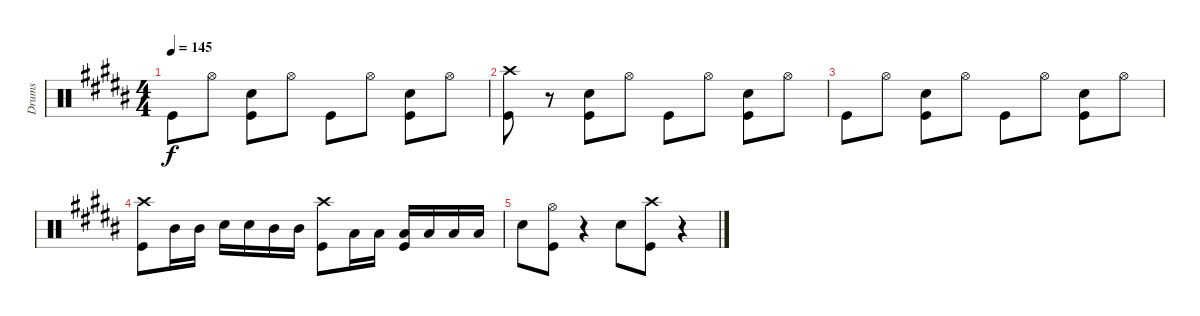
\track ("Drums" "Drums") {instrument percussion}
\staff {score}
\articulation defaults
\ts (4 4)
\tempo 145
\clef neutral
\ks b "Kick (hit)".8{dy f} "Hi-Hat (open)".8
("Snare (hit) 2" "Kick (hit)").8 "Hi-Hat (open)".8 "Kick (hit)".8 "Hi-Hat (open)".8 ("Snare (hit) 2" "Kick (hit)").8 "Hi-Hat (open)".8 |
("Crash high (hit)" "Kick (hit)").8 r.8 ("Snare (hit) 2" "Kick (hit)").8 "Hi-Hat (open)".8 "Kick (hit)".8 "Hi-Hat (open)".8 ("Snare (hit) 2" "Kick (hit)").8 "Hi-Hat (open)".8 |
"Kick (hit)".8 "Hi-Hat (open)".8 ("Snare (hit) 2" "Kick (hit)").8 "Hi-Hat (open)".8 "Kick (hit)".8 "Hi-Hat (open)".8 ("Snare (hit) 2" "Kick (hit)").8 "Hi-Hat (open)".8 |
("Crash high (hit)" "Kick (hit)").8 "Mid Tom (hit)".16 "Mid Tom (hit)".16 "Snare (hit) 2".16 "Snare (hit) 2".16 "Mid Tom (hit)".16 "Mid Tom (hit)".16 ("Crash high (hit)" "Kick (hit)").8 "Low Tom (hit)".16 "Low Tom (hit)".16 ("Low Tom (hit)" "Kick (hit)").16 "Low Tom (hit)".16 "Low Tom (hit)".16 "Low Tom (hit)".16 |
"Snare (hit) 2".8 ("Hi-Hat (open)" "Kick (hit)").8 r.4 "Snare (hit) 2".8 ("Crash high (hit)" "Kick (hit)").8 r.4
